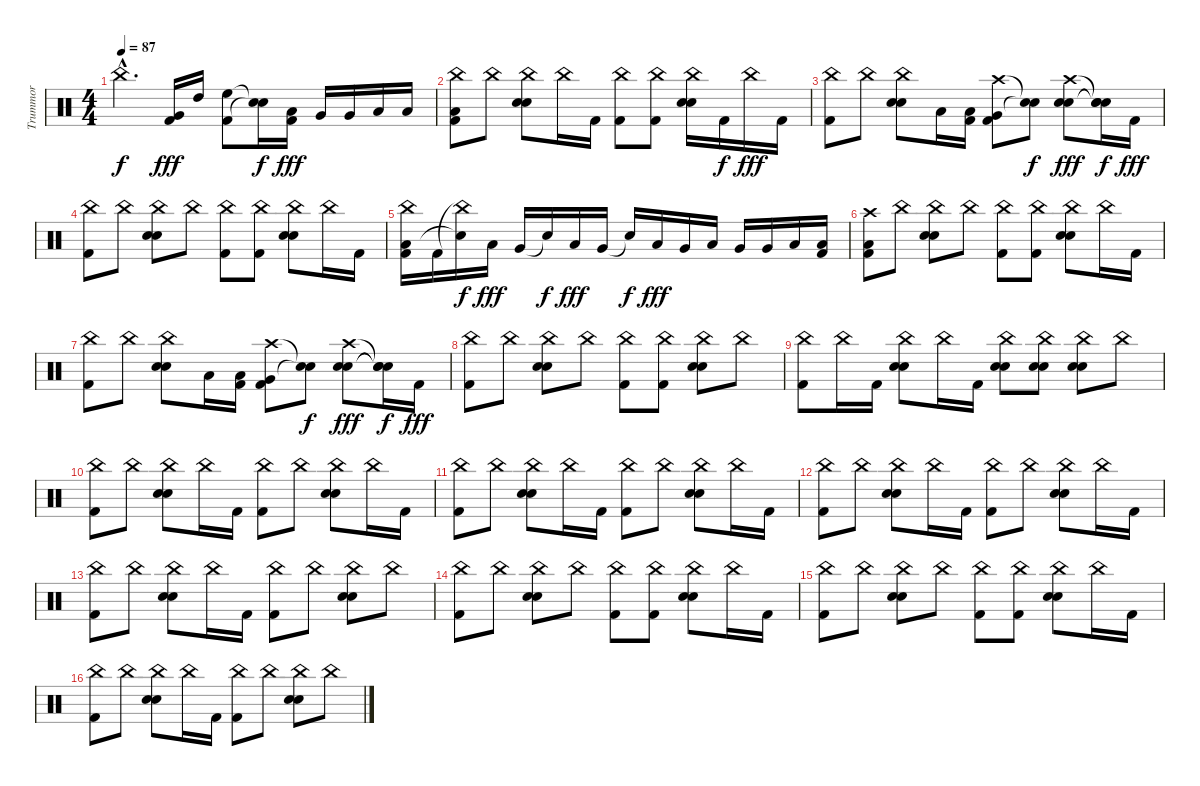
\track ("Trummor" "Trummor") {instrument percussion}
\staff {score}
\articulation defaults
\ts (4 4)
\tempo 87
\clef neutral
\ks c "China (hit)"{hac}.4{d dy f}
("Very Low Tom (hit)" "Kick (hit) 2").16{dy fff} "High Tom (hit)".16 ("High Floor Tom (hit)" "Kick (hit) 2").8 ("Snare (hit)"{t} "Snare (hit)"{t}).16{dy f} ("Low Floor Tom (hit)" "Kick (hit) 2").16{dy fff} "Very Low Tom (hit)".16 "Very Low Tom (hit)".16 "Low Tom (hit)".16 "Low Tom (hit)".16 |
("China (hit)" "Low Floor Tom (hit)" "Kick (hit) 2").8 "China (hit)".8 ("China (hit)" "Snare (hit) 2" "Electric Snare (hit)").8 "China (hit)".16 "Kick (hit) 2".16 ("China (hit)" "Kick (hit) 2").8 ("China (hit)" "Kick (hit) 2").8 ("China (hit)" "Snare (hit) 2" "Electric Snare (hit)").16 "Kick (hit) 2".16{dy f} "China (hit)".16{dy fff} "Kick (hit) 2".16 |
("China (hit)" "Kick (hit) 2").8 "China (hit)".8 ("China (hit)" "Snare (hit) 2" "Electric Snare (hit)").8 "Low Floor Tom (hit)".16 ("Low Floor Tom (hit)" "Kick (hit) 2").16 ("Crash high (hit)" "Very Low Tom (hit)" "Kick (hit) 2").8 ("Snare (hit)"{t} "Snare (hit)"{t}).8{dy f} ("Crash high (hit)" "Snare (hit) 2" "Electric Snare (hit)").8{dy fff} ("Snare (hit)"{t} "Snare (hit)"{t} "Snare (hit)"{t}).16{dy f} "Kick (hit) 2".16{dy fff} |
("China (hit)" "Kick (hit) 2").8 "China (hit)".8 ("China (hit)" "Snare (hit) 2" "Electric Snare (hit)").8 "China (hit)".8 ("China (hit)" "Kick (hit) 2").8 ("China (hit)" "Kick (hit) 2").8 ("China (hit)" "Snare (hit) 2" "Electric Snare (hit)").8 "China (hit)".16 "Kick (hit) 2".16 |
("China (hit)" "Low Floor Tom (hit)" "Kick (hit) 2").16 "Kick (hit) 2".16 ("China (hit)"{t} "Snare (hit)"{t}).16{dy f} "Low Floor Tom (hit)".16{dy fff} "Very Low Tom (hit)".16 "Snare (hit)"{t}.16{dy f} "Low Floor Tom (hit)".16{dy fff} "Very Low Tom (hit)".16 "Snare (hit) 2"{t}.16{dy f} "Low Floor Tom (hit)".16{dy fff} "Very Low Tom (hit)".16 "Low Floor Tom (hit)".16 "Very Low Tom (hit)".16 "Very Low Tom (hit)".16 "Low Tom (hit)".16 ("Low Tom (hit)" "Kick (hit) 2").16 |
("Crash high (hit)" "Low Floor Tom (hit)" "Kick (hit) 2").8 "China (hit)".8 ("China (hit)" "Snare (hit) 2" "Electric Snare (hit)").8 "China (hit)".8 ("China (hit)" "Kick (hit) 2").8 ("China (hit)" "Kick (hit) 2").8 ("China (hit)" "Snare (hit) 2" "Electric Snare (hit)").8 "China (hit)".16 "Kick (hit) 2".16 |
("China (hit)" "Kick (hit) 2").8 "China (hit)".8 ("China (hit)" "Snare (hit) 2" "Electric Snare (hit)").8 "Low Floor Tom (hit)".16 ("Low Floor Tom (hit)" "Kick (hit) 2").16 ("Crash high (hit)" "Very Low Tom (hit)" "Kick (hit) 2").8 ("Snare (hit)"{t} "Snare (hit)"{t}).8{dy f} ("Crash high (hit)" "Snare (hit) 2" "Electric Snare (hit)").8{dy fff} ("Snare (hit)"{t} "Snare (hit)"{t} "Snare (hit)"{t}).16{dy f} "Kick (hit) 2".16{dy fff} |
("China (hit)" "Kick (hit) 2").8 "China (hit)".8 ("China (hit)" "Snare (hit) 2" "Electric Snare (hit)").8 "China (hit)".8 ("China (hit)" "Kick (hit) 2").8 ("China (hit)" "Kick (hit) 2").8 ("China (hit)" "Snare (hit) 2" "Electric Snare (hit)").8 "China (hit)".8 |
("China (hit)" "Kick (hit) 2").8 "China (hit)".16 "Kick (hit) 2".16 ("China (hit)" "Snare (hit) 2" "Electric Snare (hit)").8 "China (hit)".16 "Kick (hit) 2".16 ("China (hit)" "Snare (hit) 2" "Electric Snare (hit)").8 ("China (hit)" "Snare (hit) 2" "Electric Snare (hit)").8 ("China (hit)" "Snare (hit) 2" "Electric Snare (hit)").8 "China (hit)".8 |
("China (hit)" "Kick (hit) 2").8 "China (hit)".8 ("China (hit)" "Snare (hit) 2" "Electric Snare (hit)").8 "China (hit)".16 "Kick (hit) 2".16 ("China (hit)" "Kick (hit) 2").8 "China (hit)".8 ("China (hit)" "Snare (hit) 2" "Electric Snare (hit)").8 "China (hit)".16 "Kick (hit) 2".16 |
("China (hit)" "Kick (hit) 2").8 "China (hit)".8 ("China (hit)" "Snare (hit) 2" "Electric Snare (hit)").8 "China (hit)".16 "Kick (hit) 2".16 ("China (hit)" "Kick (hit) 2").8 "China (hit)".8 ("China (hit)" "Snare (hit) 2" "Electric Snare (hit)").8 "China (hit)".16 "Kick (hit) 2".16 |
("China (hit)" "Kick (hit) 2").8 "China (hit)".8 ("China (hit)" "Snare (hit) 2" "Electric Snare (hit)").8 "China (hit)".16 "Kick (hit) 2".16 ("China (hit)" "Kick (hit) 2").8 "China (hit)".8 ("China (hit)" "Snare (hit) 2" "Electric Snare (hit)").8 "China (hit)".16 "Kick (hit) 2".16 |
("China (hit)" "Kick (hit) 2").8 "China (hit)".8 ("China (hit)" "Snare (hit) 2" "Electric Snare (hit)").8 "China (hit)".16 "Kick (hit) 2".16 ("China (hit)" "Kick (hit) 2").8 "China (hit)".8 ("China (hit)" "Snare (hit) 2" "Electric Snare (hit)").8 "China (hit)".8 |
("China (hit)" "Kick (hit) 2").8 "China (hit)".8 ("China (hit)" "Snare (hit) 2" "Electric Snare (hit)").8 "China (hit)".8 ("China (hit)" "Kick (hit) 2").8 ("China (hit)" "Kick (hit) 2").8 ("China (hit)" "Snare (hit) 2" "Electric Snare (hit)").8 "China (hit)".16 "Kick (hit) 2".16 |
("China (hit)" "Kick (hit) 2").8 "China (hit)".8 ("China (hit)" "Snare (hit) 2" "Electric Snare (hit)").8 "China (hit)".8 ("China (hit)" "Kick (hit) 2").8 ("China (hit)" "Kick (hit) 2").8 ("China (hit)" "Snare (hit) 2" "Electric Snare (hit)").8 "China (hit)".16 "Kick (hit) 2".16 |
("China (hit)" "Kick (hit) 2").8 "China (hit)".8 ("China (hit)" "Snare (hit) 2" "Electric Snare (hit)").8 "China (hit)".16 "Kick (hit) 2".16 ("China (hit)" "Kick (hit) 2").8 "China (hit)".8 ("China (hit)" "Snare (hit) 2" "Electric Snare (hit)").8 "China (hit)".8
